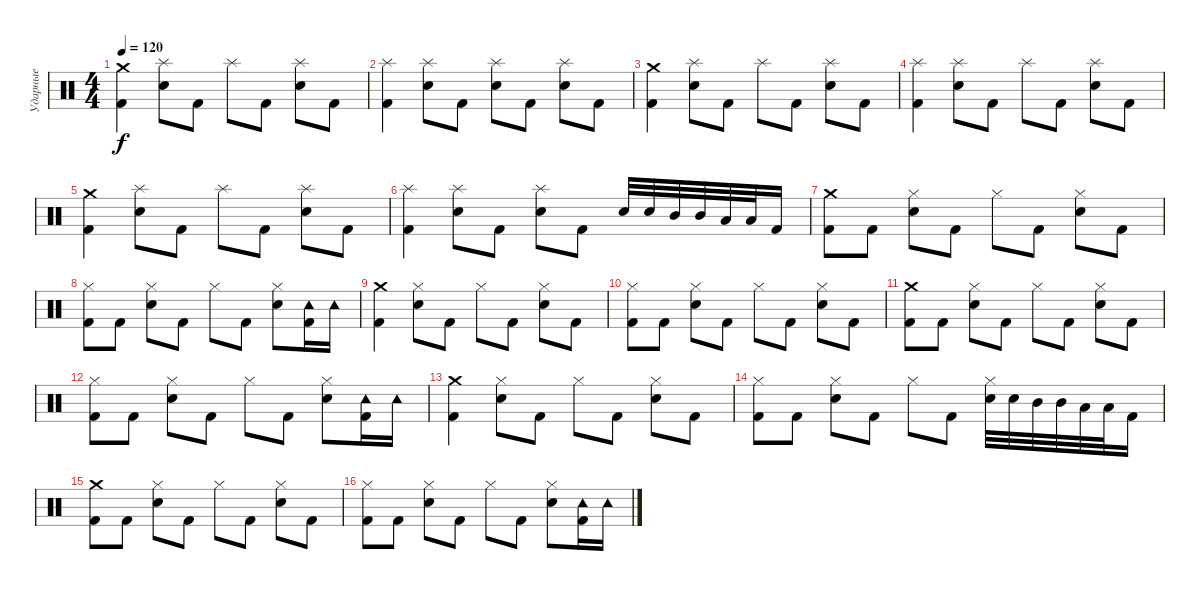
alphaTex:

\track ("Ударные" "Ударные") {instrument percussion}
\staff {score}
\articulation defaults
\ts (4 4)
\tempo 120
\clef neutral
\ks c
("Crash medium (hit)" "Kick (hit) 2").4{dy f} ("Splash (hit)" "Electric Snare (hit)").8 "Kick (hit) 2".8 "Splash (hit)".8 "Kick (hit) 2".8 ("Splash (hit)" "Electric Snare (hit)").8 "Kick (hit) 2".8 |
("Splash (hit)" "Kick (hit) 2").4 ("Splash (hit)" "Electric Snare (hit)").8 "Kick (hit) 2".8 ("Splash (hit)" "Electric Snare (hit)").8 "Kick (hit) 2".8 ("Splash (hit)" "Electric Snare (hit)").8 "Kick (hit) 2".8 |
("Crash medium (hit)" "Kick (hit) 2").4 ("Splash (hit)" "Electric Snare (hit)").8 "Kick (hit) 2".8 "Splash (hit)".8 "Kick (hit) 2".8 ("Splash (hit)" "Electric Snare (hit)").8 "Kick (hit) 2".8 |
("Splash (hit)" "Kick (hit) 2").4 ("Splash (hit)" "Electric Snare (hit)").8 "Kick (hit) 2".8 "Splash (hit)".8 "Kick (hit) 2".8 ("Splash (hit)" "Electric Snare (hit)").8 "Kick (hit) 2".8 |
("Crash medium (hit)" "Kick (hit) 2").4 ("Splash (hit)" "Electric Snare (hit)").8 "Kick (hit) 2".8 "Splash (hit)".8 "Kick (hit) 2".8 ("Splash (hit)" "Electric Snare (hit)").8 "Kick (hit) 2".8 |
("Splash (hit)" "Kick (hit) 2").4 ("Splash (hit)" "Electric Snare (hit)").8 "Kick (hit) 2".8 ("Splash (hit)" "Electric Snare (hit)").8 "Kick (hit) 2".8 "Electric Snare (hit)".32 "Electric Snare (hit)".32 "Mid Tom (hit)".32 "Mid Tom (hit)".32 "Low Tom (hit)".32 "Low Tom (hit)".32 "Kick (hit) 2".16 |
("Crash medium (hit)" "Kick (hit) 2").8 "Kick (hit) 2".8 ("Hi-Hat (closed)" "Electric Snare (hit)").8 "Kick (hit) 2".8 "Hi-Hat (closed)".8 "Kick (hit) 2".8 ("Hi-Hat (closed)" "Electric Snare (hit)").8 "Kick (hit) 2".8 |
("Hi-Hat (closed)" "Kick (hit) 2").8 "Kick (hit) 2".8 ("Hi-Hat (closed)" "Electric Snare (hit)").8 "Kick (hit) 2".8 "Hi-Hat (closed)".8 "Kick (hit) 2".8 ("Hi-Hat (closed)" "Electric Snare (hit)").8 ("Tambourine (hit)" "Kick (hit) 2").16 "Tambourine (hit)".16 |
("Crash medium (hit)" "Kick (hit) 2").4 ("Hi-Hat (closed)" "Electric Snare (hit)").8 "Kick (hit) 2".8 "Hi-Hat (closed)".8 "Kick (hit) 2".8 ("Hi-Hat (closed)" "Electric Snare (hit)").8 "Kick (hit) 2".8 |
("Hi-Hat (closed)" "Kick (hit) 2").8 "Kick (hit) 2".8 ("Hi-Hat (closed)" "Electric Snare (hit)").8 "Kick (hit) 2".8 "Hi-Hat (closed)".8 "Kick (hit) 2".8 ("Hi-Hat (closed)" "Electric Snare (hit)").8 "Kick (hit) 2".8 |
("Crash medium (hit)" "Kick (hit) 2").8 "Kick (hit) 2".8 ("Hi-Hat (closed)" "Electric Snare (hit)").8 "Kick (hit) 2".8 "Hi-Hat (closed)".8 "Kick (hit) 2".8 ("Hi-Hat (closed)" "Electric Snare (hit)").8 "Kick (hit) 2".8 |
("Hi-Hat (closed)" "Kick (hit) 2").8 "Kick (hit) 2".8 ("Hi-Hat (closed)" "Electric Snare (hit)").8 "Kick (hit) 2".8 "Hi-Hat (closed)".8 "Kick (hit) 2".8 ("Hi-Hat (closed)" "Electric Snare (hit)").8 ("Tambourine (hit)" "Kick (hit) 2").16 "Tambourine (hit)".16 |
("Crash medium (hit)" "Kick (hit) 2").4 ("Hi-Hat (closed)" "Electric Snare (hit)").8 "Kick (hit) 2".8 "Hi-Hat (closed)".8 "Kick (hit) 2".8 ("Hi-Hat (closed)" "Electric Snare (hit)").8 "Kick (hit) 2".8 |
("Hi-Hat (closed)" "Kick (hit) 2").8 "Kick (hit) 2".8 ("Hi-Hat (closed)" "Electric Snare (hit)").8 "Kick (hit) 2".8 "Hi-Hat (closed)".8 "Kick (hit) 2".8 ("Hi-Hat (closed)" "Electric Snare (hit)").32 "Electric Snare (hit)".32 "Mid Tom (hit)".32 "Mid Tom (hit)".32 "Low Tom (hit)".32 "Low Tom (hit)".32 "Kick (hit) 2".16 |
("Crash medium (hit)" "Kick (hit) 2").8 "Kick (hit) 2".8 ("Hi-Hat (closed)" "Electric Snare (hit)").8 "Kick (hit) 2".8 "Hi-Hat (closed)".8 "Kick (hit) 2".8 ("Hi-Hat (closed)" "Electric Snare (hit)").8 "Kick (hit) 2".8 |
("Hi-Hat (closed)" "Kick (hit) 2").8 "Kick (hit) 2".8 ("Hi-Hat (closed)" "Electric Snare (hit)").8 "Kick (hit) 2".8 "Hi-Hat (closed)".8 "Kick (hit) 2".8 ("Hi-Hat (closed)" "Electric Snare (hit)").8 ("Tambourine (hit)" "Kick (hit) 2").16 "Tambourine (hit)".16
